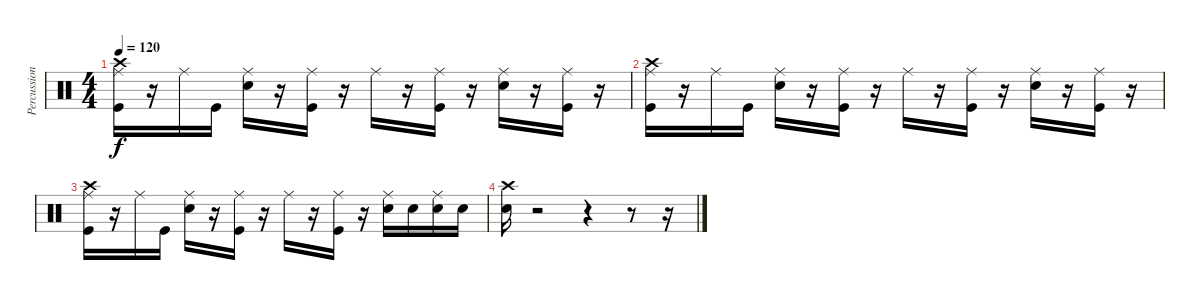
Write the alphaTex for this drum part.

\track ("Percussion" "Percussion") {instrument percussion}
\staff {score}
\articulation defaults
\ts (4 4)
\tempo 120
\clef neutral
\ks c
("Crash high (hit)" "Ride (middle)" "Kick (hit)").16{dy f} r.16 "Ride (middle)".16 "Kick (hit)".16 ("Ride (middle)" "Electric Snare (hit)").16 r.16 ("Ride (middle)" "Kick (hit)").16 r.16 "Ride (middle)".16 r.16 ("Ride (middle)" "Kick (hit)").16 r.16 ("Ride (middle)" "Electric Snare (hit)").16 r.16 ("Ride (middle)" "Kick (hit)").16 r.16 |
("Crash high (hit)" "Ride (middle)" "Kick (hit)").16 r.16 "Ride (middle)".16 "Kick (hit)".16 ("Ride (middle)" "Electric Snare (hit)").16 r.16 ("Ride (middle)" "Kick (hit)").16 r.16 "Ride (middle)".16 r.16 ("Ride (middle)" "Kick (hit)").16 r.16 ("Ride (middle)" "Electric Snare (hit)").16 r.16 ("Ride (middle)" "Kick (hit)").16 r.16 |
("Crash high (hit)" "Ride (middle)" "Kick (hit)").16 r.16 "Ride (middle)".16 "Kick (hit)".16 ("Ride (middle)" "Electric Snare (hit)").16 r.16 ("Ride (middle)" "Kick (hit)").16 r.16 "Ride (middle)".16 r.16 ("Ride (middle)" "Kick (hit)").16 r.16 ("Ride (middle)" "Electric Snare (hit)").16 "Electric Snare (hit)".16 ("Ride (middle)" "Electric Snare (hit)").16 "Electric Snare (hit)".16 |
("Crash high (hit)" "Electric Snare (hit)").16 r.2 r.4 r.8 r.16
